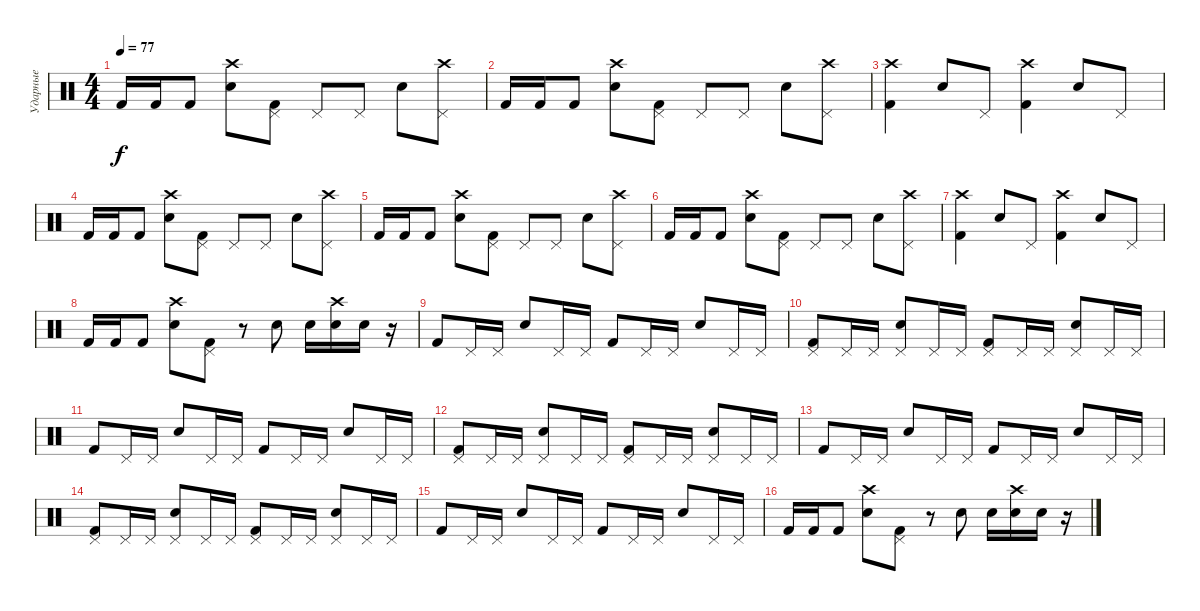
\track ("Ударные" "Ударные") {instrument percussion}
\staff {score}
\articulation defaults
\ts (4 4)
\tempo 77
\clef neutral
\ks c "Kick (hit) 2".16{dy f} "Kick (hit) 2".16 "Kick (hit) 2".8
("Snare (hit) 2" "Crash high (hit)").8 ("Kick (hit) 2" "Pedal Hi-Hat (hit)").8 "Pedal Hi-Hat (hit)".8 "Pedal Hi-Hat (hit)".8 "Snare (hit) 2".8 ("Pedal Hi-Hat (hit)" "Crash high (hit)").8 |
"Kick (hit) 2".16 "Kick (hit) 2".16 "Kick (hit) 2".8 ("Snare (hit) 2" "Crash high (hit)").8 ("Kick (hit) 2" "Pedal Hi-Hat (hit)").8 "Pedal Hi-Hat (hit)".8 "Pedal Hi-Hat (hit)".8 "Snare (hit) 2".8 ("Pedal Hi-Hat (hit)" "Crash high (hit)").8 |
("Kick (hit) 2" "Crash high (hit)").4 "Snare (hit) 2".8 "Pedal Hi-Hat (hit)".8 ("Kick (hit) 2" "Crash high (hit)").4 "Snare (hit) 2".8 "Pedal Hi-Hat (hit)".8 |
"Kick (hit) 2".16 "Kick (hit) 2".16 "Kick (hit) 2".8 ("Snare (hit) 2" "Crash high (hit)").8 ("Kick (hit) 2" "Pedal Hi-Hat (hit)").8 "Pedal Hi-Hat (hit)".8 "Pedal Hi-Hat (hit)".8 "Snare (hit) 2".8 ("Pedal Hi-Hat (hit)" "Crash high (hit)").8 |
"Kick (hit) 2".16 "Kick (hit) 2".16 "Kick (hit) 2".8 ("Snare (hit) 2" "Crash high (hit)").8 ("Kick (hit) 2" "Pedal Hi-Hat (hit)").8 "Pedal Hi-Hat (hit)".8 "Pedal Hi-Hat (hit)".8 "Snare (hit) 2".8 ("Pedal Hi-Hat (hit)" "Crash high (hit)").8 |
"Kick (hit) 2".16 "Kick (hit) 2".16 "Kick (hit) 2".8 ("Snare (hit) 2" "Crash high (hit)").8 ("Kick (hit) 2" "Pedal Hi-Hat (hit)").8 "Pedal Hi-Hat (hit)".8 "Pedal Hi-Hat (hit)".8 "Snare (hit) 2".8 ("Pedal Hi-Hat (hit)" "Crash high (hit)").8 |
("Kick (hit) 2" "Crash high (hit)").4 "Snare (hit) 2".8 "Pedal Hi-Hat (hit)".8 ("Kick (hit) 2" "Crash high (hit)").4 "Snare (hit) 2".8 "Pedal Hi-Hat (hit)".8 |
"Kick (hit) 2".16 "Kick (hit) 2".16 "Kick (hit) 2".8 ("Snare (hit) 2" "Crash high (hit)").8 ("Kick (hit) 2" "Pedal Hi-Hat (hit)").8 r.8 "Snare (hit) 2".8 "Snare (hit) 2".16 ("Snare (hit) 2" "Crash high (hit)").16 "Snare (hit) 2".16 r.16 |
"Kick (hit) 2".8 "Pedal Hi-Hat (hit)".16 "Pedal Hi-Hat (hit)".16 "Snare (hit) 2".8 "Pedal Hi-Hat (hit)".16 "Pedal Hi-Hat (hit)".16 "Kick (hit) 2".8 "Pedal Hi-Hat (hit)".16 "Pedal Hi-Hat (hit)".16 "Snare (hit) 2".8 "Pedal Hi-Hat (hit)".16 "Pedal Hi-Hat (hit)".16 |
("Kick (hit) 2" "Pedal Hi-Hat (hit)").8 "Pedal Hi-Hat (hit)".16 "Pedal Hi-Hat (hit)".16 ("Snare (hit) 2" "Pedal Hi-Hat (hit)").8 "Pedal Hi-Hat (hit)".16 "Pedal Hi-Hat (hit)".16 ("Kick (hit) 2" "Pedal Hi-Hat (hit)").8 "Pedal Hi-Hat (hit)".16 "Pedal Hi-Hat (hit)".16 ("Snare (hit) 2" "Pedal Hi-Hat (hit)").8 "Pedal Hi-Hat (hit)".16 "Pedal Hi-Hat (hit)".16 |
"Kick (hit) 2".8 "Pedal Hi-Hat (hit)".16 "Pedal Hi-Hat (hit)".16 "Snare (hit) 2".8 "Pedal Hi-Hat (hit)".16 "Pedal Hi-Hat (hit)".16 "Kick (hit) 2".8 "Pedal Hi-Hat (hit)".16 "Pedal Hi-Hat (hit)".16 "Snare (hit) 2".8 "Pedal Hi-Hat (hit)".16 "Pedal Hi-Hat (hit)".16 |
("Kick (hit) 2" "Pedal Hi-Hat (hit)").8 "Pedal Hi-Hat (hit)".16 "Pedal Hi-Hat (hit)".16 ("Snare (hit) 2" "Pedal Hi-Hat (hit)").8 "Pedal Hi-Hat (hit)".16 "Pedal Hi-Hat (hit)".16 ("Kick (hit) 2" "Pedal Hi-Hat (hit)").8 "Pedal Hi-Hat (hit)".16 "Pedal Hi-Hat (hit)".16 ("Snare (hit) 2" "Pedal Hi-Hat (hit)").8 "Pedal Hi-Hat (hit)".16 "Pedal Hi-Hat (hit)".16 |
"Kick (hit) 2".8 "Pedal Hi-Hat (hit)".16 "Pedal Hi-Hat (hit)".16 "Snare (hit) 2".8 "Pedal Hi-Hat (hit)".16 "Pedal Hi-Hat (hit)".16 "Kick (hit) 2".8 "Pedal Hi-Hat (hit)".16 "Pedal Hi-Hat (hit)".16 "Snare (hit) 2".8 "Pedal Hi-Hat (hit)".16 "Pedal Hi-Hat (hit)".16 |
("Kick (hit) 2" "Pedal Hi-Hat (hit)").8 "Pedal Hi-Hat (hit)".16 "Pedal Hi-Hat (hit)".16 ("Snare (hit) 2" "Pedal Hi-Hat (hit)").8 "Pedal Hi-Hat (hit)".16 "Pedal Hi-Hat (hit)".16 ("Kick (hit) 2" "Pedal Hi-Hat (hit)").8 "Pedal Hi-Hat (hit)".16 "Pedal Hi-Hat (hit)".16 ("Snare (hit) 2" "Pedal Hi-Hat (hit)").8 "Pedal Hi-Hat (hit)".16 "Pedal Hi-Hat (hit)".16 |
"Kick (hit) 2".8 "Pedal Hi-Hat (hit)".16 "Pedal Hi-Hat (hit)".16 "Snare (hit) 2".8 "Pedal Hi-Hat (hit)".16 "Pedal Hi-Hat (hit)".16 "Kick (hit) 2".8 "Pedal Hi-Hat (hit)".16 "Pedal Hi-Hat (hit)".16 "Snare (hit) 2".8 "Pedal Hi-Hat (hit)".16 "Pedal Hi-Hat (hit)".16 |
"Kick (hit) 2".16 "Kick (hit) 2".16 "Kick (hit) 2".8 ("Snare (hit) 2" "Crash high (hit)").8 ("Kick (hit) 2" "Pedal Hi-Hat (hit)").8 r.8 "Snare (hit) 2".8 "Snare (hit) 2".16 ("Snare (hit) 2" "Crash high (hit)").16 "Snare (hit) 2".16 r.16
